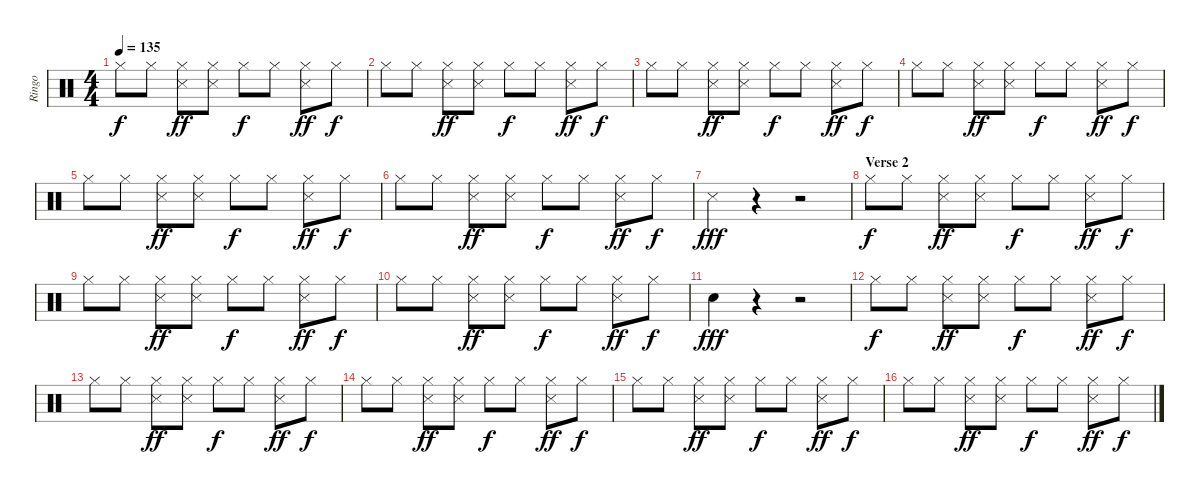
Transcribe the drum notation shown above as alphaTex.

\track ("Ringo" "Ringo") {instrument percussion}
\staff {score}
\articulation defaults
\ts (4 4)
\tempo 135
\clef neutral
\ks c "Hi-Hat (closed)".8{dy f} "Hi-Hat (closed)".8
("Hi-Hat (closed)" "Snare (side stick) 3").8{dy ff} ("Hi-Hat (closed)" "Snare (side stick) 3").8 "Hi-Hat (closed)".8{dy f} "Hi-Hat (closed)".8 ("Hi-Hat (closed)" "Snare (side stick) 3").8{dy ff} "Hi-Hat (closed)".8{dy f} |
"Hi-Hat (closed)".8 "Hi-Hat (closed)".8 ("Hi-Hat (closed)" "Snare (side stick) 3").8{dy ff} ("Hi-Hat (closed)" "Snare (side stick) 3").8 "Hi-Hat (closed)".8{dy f} "Hi-Hat (closed)".8 ("Hi-Hat (closed)" "Snare (side stick) 3").8{dy ff} "Hi-Hat (closed)".8{dy f} |
"Hi-Hat (closed)".8 "Hi-Hat (closed)".8 ("Hi-Hat (closed)" "Snare (side stick) 3").8{dy ff} ("Hi-Hat (closed)" "Snare (side stick) 3").8 "Hi-Hat (closed)".8{dy f} "Hi-Hat (closed)".8 ("Hi-Hat (closed)" "Snare (side stick) 3").8{dy ff} "Hi-Hat (closed)".8{dy f} |
"Hi-Hat (closed)".8 "Hi-Hat (closed)".8 ("Hi-Hat (closed)" "Snare (side stick) 3").8{dy ff} ("Hi-Hat (closed)" "Snare (side stick) 3").8 "Hi-Hat (closed)".8{dy f} "Hi-Hat (closed)".8 ("Hi-Hat (closed)" "Snare (side stick) 3").8{dy ff} "Hi-Hat (closed)".8{dy f} |
"Hi-Hat (closed)".8 "Hi-Hat (closed)".8 ("Hi-Hat (closed)" "Snare (side stick) 3").8{dy ff} ("Hi-Hat (closed)" "Snare (side stick) 3").8 "Hi-Hat (closed)".8{dy f} "Hi-Hat (closed)".8 ("Hi-Hat (closed)" "Snare (side stick) 3").8{dy ff} "Hi-Hat (closed)".8{dy f} |
"Hi-Hat (closed)".8 "Hi-Hat (closed)".8 ("Hi-Hat (closed)" "Snare (side stick) 3").8{dy ff} ("Hi-Hat (closed)" "Snare (side stick) 3").8 "Hi-Hat (closed)".8{dy f} "Hi-Hat (closed)".8 ("Hi-Hat (closed)" "Snare (side stick) 3").8{dy ff} "Hi-Hat (closed)".8{dy f} |
"Snare (side stick) 3".4{dy fff} r.4 r.2 |
\section ("" "Verse 2")
"Hi-Hat (closed)".8{dy f} "Hi-Hat (closed)".8 ("Hi-Hat (closed)" "Snare (side stick) 3").8{dy ff} ("Hi-Hat (closed)" "Snare (side stick) 3").8 "Hi-Hat (closed)".8{dy f} "Hi-Hat (closed)".8 ("Hi-Hat (closed)" "Snare (side stick) 3").8{dy ff} "Hi-Hat (closed)".8{dy f} |
"Hi-Hat (closed)".8 "Hi-Hat (closed)".8 ("Hi-Hat (closed)" "Snare (side stick) 3").8{dy ff} ("Hi-Hat (closed)" "Snare (side stick) 3").8 "Hi-Hat (closed)".8{dy f} "Hi-Hat (closed)".8 ("Hi-Hat (closed)" "Snare (side stick) 3").8{dy ff} "Hi-Hat (closed)".8{dy f} |
"Hi-Hat (closed)".8 "Hi-Hat (closed)".8 ("Hi-Hat (closed)" "Snare (side stick) 3").8{dy ff} ("Hi-Hat (closed)" "Snare (side stick) 3").8 "Hi-Hat (closed)".8{dy f} "Hi-Hat (closed)".8 ("Hi-Hat (closed)" "Snare (side stick) 3").8{dy ff} "Hi-Hat (closed)".8{dy f} |
"Electric Snare (hit)".4{dy fff} r.4 r.2 |
"Hi-Hat (closed)".8{dy f} "Hi-Hat (closed)".8 ("Hi-Hat (closed)" "Snare (side stick) 3").8{dy ff} ("Hi-Hat (closed)" "Snare (side stick) 3").8 "Hi-Hat (closed)".8{dy f} "Hi-Hat (closed)".8 ("Hi-Hat (closed)" "Snare (side stick) 3").8{dy ff} "Hi-Hat (closed)".8{dy f} |
"Hi-Hat (closed)".8 "Hi-Hat (closed)".8 ("Hi-Hat (closed)" "Snare (side stick) 3").8{dy ff} ("Hi-Hat (closed)" "Snare (side stick) 3").8 "Hi-Hat (closed)".8{dy f} "Hi-Hat (closed)".8 ("Hi-Hat (closed)" "Snare (side stick) 3").8{dy ff} "Hi-Hat (closed)".8{dy f} |
"Hi-Hat (closed)".8 "Hi-Hat (closed)".8 ("Hi-Hat (closed)" "Snare (side stick) 3").8{dy ff} ("Hi-Hat (closed)" "Snare (side stick) 3").8 "Hi-Hat (closed)".8{dy f} "Hi-Hat (closed)".8 ("Hi-Hat (closed)" "Snare (side stick) 3").8{dy ff} "Hi-Hat (closed)".8{dy f} |
"Hi-Hat (closed)".8 "Hi-Hat (closed)".8 ("Hi-Hat (closed)" "Snare (side stick) 3").8{dy ff} ("Hi-Hat (closed)" "Snare (side stick) 3").8 "Hi-Hat (closed)".8{dy f} "Hi-Hat (closed)".8 ("Hi-Hat (closed)" "Snare (side stick) 3").8{dy ff} "Hi-Hat (closed)".8{dy f} |
"Hi-Hat (closed)".8 "Hi-Hat (closed)".8 ("Hi-Hat (closed)" "Snare (side stick) 3").8{dy ff} ("Hi-Hat (closed)" "Snare (side stick) 3").8 "Hi-Hat (closed)".8{dy f} "Hi-Hat (closed)".8 ("Hi-Hat (closed)" "Snare (side stick) 3").8{dy ff} "Hi-Hat (closed)".8{dy f}
